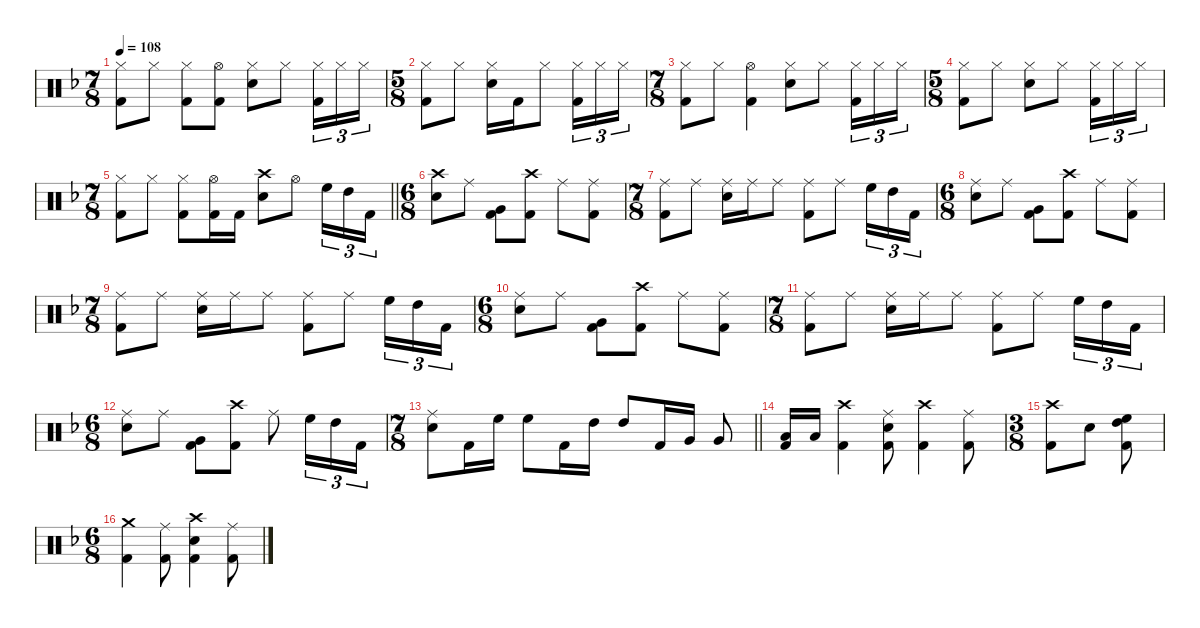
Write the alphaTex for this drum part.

\defaultSystemsLayout 4
\hideDynamics
\bracketExtendMode nobrackets
\singleTrackTrackNamePolicy hidden
\multiTrackTrackNamePolicy hidden
\firstSystemTrackNameMode fullname
\firstSystemTrackNameOrientation horizontal
\otherSystemsTrackNameOrientation horizontal
\track ("Danny Carey" "drm.") {defaultSystemsLayout 4 instrument percussion}
\staff {score}
\articulation defaults
\ts (7 8)
\beaming (8 2 2 2 2)
\tempo 108
\clef neutral
\ks dminor
("Hi-Hat (closed)"{acc forcenatural} "Kick (hit) 2"{acc forcenatural}).8{dy f beam Down} "Hi-Hat (closed)"{acc forcenatural}.8{beam Down} ("Hi-Hat (closed)"{acc forcenatural} "Kick (hit) 2"{acc forcenatural}).8{beam Down} ("Hi-Hat (open)"{acc forcenatural} "Kick (hit) 2"{acc forcenatural}).8{beam Down} ("Hi-Hat (closed)"{acc forcenatural} "Snare (hit) 2"{acc forcenatural}).8{beam Down} "Hi-Hat (closed)"{acc forcenatural}.8{beam Down} ("Hi-Hat (closed)"{acc forcenatural} "Kick (hit) 2"{acc forcenatural}).16{tu (3 2) beam Down} "Hi-Hat (closed)"{acc forcenatural}.16{tu (3 2) beam Down} "Hi-Hat (closed)"{acc forcenatural}.16{tu (3 2) beam Down} |
\ts (5 8)
\beaming (8 2 2 2 2)
("Hi-Hat (closed)"{acc forcenatural} "Kick (hit) 2"{acc forcenatural}).8{beam Down} "Hi-Hat (closed)"{acc forcenatural}.8{beam Down} ("Hi-Hat (closed)"{acc forcenatural} "Snare (hit) 2"{acc forcenatural}).16{beam Down} "Kick (hit) 2"{acc forcenatural}.16{beam Down} "Hi-Hat (closed)"{acc forcenatural}.8{beam Down} ("Hi-Hat (closed)"{acc forcenatural} "Kick (hit) 2"{acc forcenatural}).16{tu (3 2) beam Down} "Hi-Hat (closed)"{acc forcenatural}.16{tu (3 2) beam Down} "Hi-Hat (closed)"{acc forcenatural}.16{tu (3 2) beam Down} |
\ts (7 8)
\beaming (8 2 2 2 2)
("Hi-Hat (closed)"{acc forcenatural} "Kick (hit) 2"{acc forcenatural}).8{beam Down} "Hi-Hat (closed)"{acc forcenatural}.8{beam Down} ("Hi-Hat (open)"{acc forcenatural} "Kick (hit) 2"{acc forcenatural}).4{beam Down} ("Hi-Hat (closed)"{acc forcenatural} "Snare (hit) 2"{acc forcenatural}).8{beam Down} "Hi-Hat (closed)"{acc forcenatural}.8{beam Down} ("Hi-Hat (closed)"{acc forcenatural} "Kick (hit) 2"{acc forcenatural}).16{tu (3 2) beam Down} "Hi-Hat (closed)"{acc forcenatural}.16{tu (3 2) beam Down} "Hi-Hat (closed)"{acc forcenatural}.16{tu (3 2) beam Down} |
\ts (5 8)
\beaming (8 2 2 2 2)
("Hi-Hat (closed)"{acc forcenatural} "Kick (hit) 2"{acc forcenatural}).8{beam Down} "Hi-Hat (closed)"{acc forcenatural}.8{beam Down} ("Hi-Hat (closed)"{acc forcenatural} "Snare (hit) 2"{acc forcenatural}).8{beam Down} "Hi-Hat (closed)"{acc forcenatural}.8{beam Down} ("Hi-Hat (closed)"{acc forcenatural} "Kick (hit) 2"{acc forcenatural}).16{tu (3 2) beam Down} "Hi-Hat (closed)"{acc forcenatural}.16{tu (3 2) beam Down} "Hi-Hat (closed)"{acc forcenatural}.16{tu (3 2) beam Down} |
\ts (7 8)
\beaming (8 2 2 2 2)
\barLineRight lightlight
("Hi-Hat (closed)"{acc forcenatural} "Kick (hit) 2"{acc forcenatural}).8{beam Down} "Hi-Hat (closed)"{acc forcenatural}.8{beam Down} ("Hi-Hat (closed)"{acc forcenatural} "Kick (hit) 2"{acc forcenatural}).8{beam Down} ("Hi-Hat (open)"{acc forcenatural} "Kick (hit) 2"{acc forcenatural}).16{beam Down} "Kick (hit) 2"{acc forcenatural}.16{beam Down} ("Crash high (hit)"{acc forcenatural} "Snare (hit) 2"{acc forcenatural}).8{beam Down} "Hi-Hat (open)"{acc forcenatural}.8{beam Down} "High Floor Tom (hit)"{acc forcenatural}.16{tu (3 2) beam Down} "High Tom (hit)"{acc forcenatural}.16{tu (3 2) beam Down} "Kick (hit) 2"{acc forcenatural}.16{tu (3 2) beam Down} |
\ts (6 8)
\beaming (8 2 2 2 2)
("Crash high (hit)"{acc forcenatural} "Snare (hit) 2"{acc forcenatural}).8{beam Down} "Ride (middle)"{acc forcenatural}.8{beam Down} ("Very Low Tom (hit)"{acc forcenatural} "Kick (hit) 2"{acc forcenatural}).8{beam Down} ("Crash high (hit)"{acc forcenatural} "Kick (hit) 2"{acc forcenatural}).8{beam Down} "Ride (middle)"{acc forcenatural}.8{beam Down} ("Ride (middle)"{acc forcenatural} "Kick (hit) 2"{acc forcenatural}).8{beam Down} |
\ts (7 8)
\beaming (8 2 2 2 2)
("Ride (middle)"{acc forcenatural} "Kick (hit) 2"{acc forcenatural}).8{beam Down} "Ride (middle)"{acc forcenatural}.8{beam Down} ("Ride (middle)"{acc forcenatural} "Snare (hit) 2"{acc forcenatural}).16{beam Down} "Ride (middle)"{acc forcenatural}.16{beam Down} "Ride (middle)"{acc forcenatural}.8{beam Down} ("Ride (middle)"{acc forcenatural} "Kick (hit) 2"{acc forcenatural}).8{beam Down} "Ride (middle)"{acc forcenatural}.8{beam Down} "High Floor Tom (hit)"{acc forcenatural}.16{tu (3 2) beam Down} "High Tom (hit)"{acc forcenatural}.16{tu (3 2) beam Down} "Kick (hit) 2"{acc forcenatural}.16{tu (3 2) beam Down} |
\ts (6 8)
\beaming (8 2 2 2 2)
("Ride (middle)"{acc forcenatural} "Snare (hit) 2"{acc forcenatural}).8{beam Down} "Ride (middle)"{acc forcenatural}.8{beam Down} ("Very Low Tom (hit)"{acc forcenatural} "Kick (hit) 2"{acc forcenatural}).8{beam Down} ("Crash high (hit)"{acc forcenatural} "Kick (hit) 2"{acc forcenatural}).8{beam Down} "Ride (middle)"{acc forcenatural}.8{beam Down} ("Ride (middle)"{acc forcenatural} "Kick (hit) 2"{acc forcenatural}).8{beam Down} |
\ts (7 8)
\beaming (8 2 2 2 2)
("Ride (middle)"{acc forcenatural} "Kick (hit) 2"{acc forcenatural}).8{beam Down} "Ride (middle)"{acc forcenatural}.8{beam Down} ("Ride (middle)"{acc forcenatural} "Snare (hit) 2"{acc forcenatural}).16{beam Down} "Ride (middle)"{acc forcenatural}.16{beam Down} "Ride (middle)"{acc forcenatural}.8{beam Down} ("Ride (middle)"{acc forcenatural} "Kick (hit) 2"{acc forcenatural}).8{beam Down} "Ride (middle)"{acc forcenatural}.8{beam Down} "High Floor Tom (hit)"{acc forcenatural}.16{tu (3 2) beam Down} "High Tom (hit)"{acc forcenatural}.16{tu (3 2) beam Down} "Kick (hit) 2"{acc forcenatural}.16{tu (3 2) beam Down} |
\ts (6 8)
\beaming (8 2 2 2 2)
("Ride (middle)"{acc forcenatural} "Snare (hit) 2"{acc forcenatural}).8{beam Down} "Ride (middle)"{acc forcenatural}.8{beam Down} ("Very Low Tom (hit)"{acc forcenatural} "Kick (hit) 2"{acc forcenatural}).8{beam Down} ("Crash high (hit)"{acc forcenatural} "Kick (hit) 2"{acc forcenatural}).8{beam Down} "Ride (middle)"{acc forcenatural}.8{beam Down} ("Ride (middle)"{acc forcenatural} "Kick (hit) 2"{acc forcenatural}).8{beam Down} |
\ts (7 8)
\beaming (8 2 2 2 2)
("Ride (middle)"{acc forcenatural} "Kick (hit) 2"{acc forcenatural}).8{beam Down} "Ride (middle)"{acc forcenatural}.8{beam Down} ("Ride (middle)"{acc forcenatural} "Snare (hit) 2"{acc forcenatural}).16{beam Down} "Ride (middle)"{acc forcenatural}.16{beam Down} "Ride (middle)"{acc forcenatural}.8{beam Down} ("Ride (middle)"{acc forcenatural} "Kick (hit) 2"{acc forcenatural}).8{beam Down} "Ride (middle)"{acc forcenatural}.8{beam Down} "High Floor Tom (hit)"{acc forcenatural}.16{tu (3 2) beam Down} "High Tom (hit)"{acc forcenatural}.16{tu (3 2) beam Down} "Kick (hit) 2"{acc forcenatural}.16{tu (3 2) beam Down} |
\ts (6 8)
\beaming (8 2 2 2 2)
("Ride (middle)"{acc forcenatural} "Snare (hit) 2"{acc forcenatural}).8{beam Down} "Ride (middle)"{acc forcenatural}.8{beam Down} ("Very Low Tom (hit)"{acc forcenatural} "Kick (hit) 2"{acc forcenatural}).8{beam Down} ("Crash high (hit)"{acc forcenatural} "Kick (hit) 2"{acc forcenatural}).8{beam Down} "Ride (middle)"{acc forcenatural}.8{beam Down} "High Floor Tom (hit)"{acc forcenatural}.16{tu (3 2) beam Down} "High Tom (hit)"{acc forcenatural}.16{tu (3 2) beam Down} "Kick (hit) 2"{acc forcenatural}.16{tu (3 2) beam Down} |
\ts (7 8)
\beaming (8 2 2 2 2)
\barLineRight lightlight
("Ride (middle)"{acc forcenatural} "Snare (hit) 2"{acc forcenatural}).8{beam Down} "Kick (hit) 2"{acc forcenatural}.16{beam Down} "High Floor Tom (hit)"{acc forcenatural}.16{beam Down} "High Floor Tom (hit)"{acc forcenatural}.8{beam Down} "Kick (hit) 2"{acc forcenatural}.16{beam Down} "High Tom (hit)"{acc forcenatural}.16{beam Down} "High Tom (hit)"{acc forcenatural}.8{beam Up} "Kick (hit) 2"{acc forcenatural}.16{beam Up} "Very Low Tom (hit)"{acc forcenatural}.16{beam Up} "Very Low Tom (hit)"{acc forcenatural}.8{beam Up} |
("Low Floor Tom (hit)"{acc forcenatural} "Kick (hit) 2"{acc forcenatural}).16{beam Up} "Low Floor Tom (hit)"{acc forcenatural}.16{beam Up} ("Crash high (hit)"{acc forcenatural} "Kick (hit) 2"{acc forcenatural}).4{beam Down} ("Ride (middle)"{acc forcenatural} "Snare (hit) 2"{acc forcenatural} "Kick (hit) 2"{acc forcenatural}).8{beam Down} ("Crash high (hit)"{acc forcenatural} "Kick (hit) 2"{acc forcenatural}).4{beam Down} ("Ride (middle)"{acc forcenatural} "Kick (hit) 2"{acc forcenatural}).8{beam Down} |
\ts (3 8)
\beaming (8 2 2 2 2)
("Crash high (hit)"{acc forcenatural} "Kick (hit) 2"{acc forcenatural}).8{beam Down} "Snare (hit) 2"{acc forcenatural}.8{beam Down} ("High Tom (hit)"{acc forcenatural} "High Floor Tom (hit)"{acc forcenatural} "Kick (hit) 2"{acc forcenatural}).8{beam Down} |
\ts (6 8)
\beaming (8 2 2 2 2)
("Crash medium (hit)"{acc forcenatural} "Kick (hit) 2"{acc forcenatural}).4{beam Down} ("Ride (middle)"{acc forcenatural} "Kick (hit) 2"{acc forcenatural}).8{beam Down} ("Crash high (hit)"{acc forcenatural} "Snare (hit) 2"{acc forcenatural} "Kick (hit) 2"{acc forcenatural}).4{beam Down} ("Ride (middle)"{acc forcenatural} "Kick (hit) 2"{acc forcenatural}).8{beam Down}
